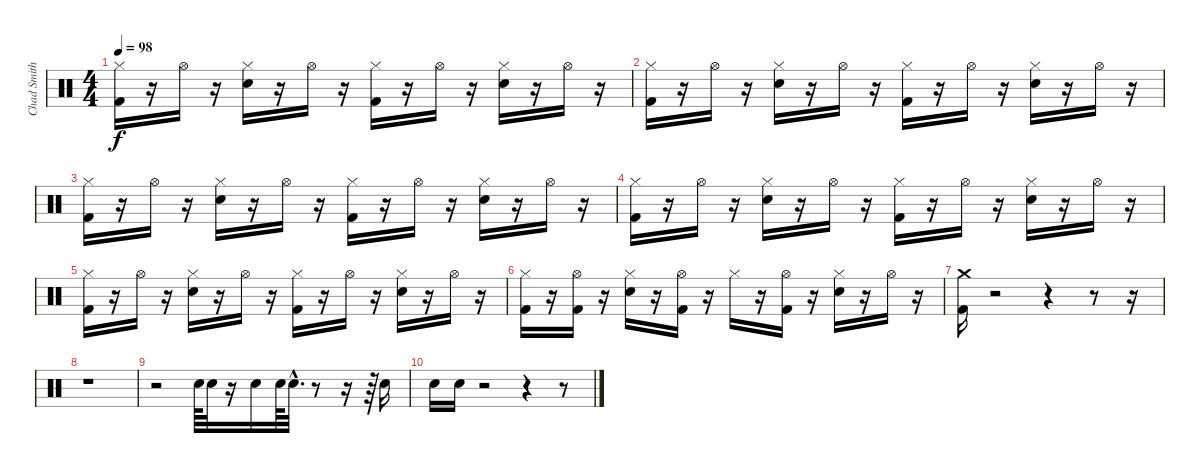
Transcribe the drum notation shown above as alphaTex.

\track ("Chad Smith" "Chad Smith") {instrument percussion}
\staff {score}
\articulation defaults
\ts (4 4)
\tempo 98
\clef neutral
\ks c
("Hi-Hat (closed)" "Kick (hit) 2").16{dy f} r.16 "Hi-Hat (open)".16 r.16 ("Hi-Hat (closed)" "Electric Snare (hit)").16 r.16 "Hi-Hat (open)".16 r.16 ("Kick (hit) 2" "Hi-Hat (closed)").16 r.16 "Hi-Hat (open)".16 r.16 ("Electric Snare (hit)" "Hi-Hat (closed)").16 r.16 "Hi-Hat (open)".16 r.16 |
("Hi-Hat (closed)" "Kick (hit) 2").16 r.16 "Hi-Hat (open)".16 r.16 ("Hi-Hat (closed)" "Electric Snare (hit)").16 r.16 "Hi-Hat (open)".16 r.16 ("Kick (hit) 2" "Hi-Hat (closed)").16 r.16 "Hi-Hat (open)".16 r.16 ("Electric Snare (hit)" "Hi-Hat (closed)").16 r.16 "Hi-Hat (open)".16 r.16 |
("Hi-Hat (closed)" "Kick (hit) 2").16 r.16 "Hi-Hat (open)".16 r.16 ("Hi-Hat (closed)" "Electric Snare (hit)").16 r.16 "Hi-Hat (open)".16 r.16 ("Kick (hit) 2" "Hi-Hat (closed)").16 r.16 "Hi-Hat (open)".16 r.16 ("Electric Snare (hit)" "Hi-Hat (closed)").16 r.16 "Hi-Hat (open)".16 r.16 |
("Hi-Hat (closed)" "Kick (hit) 2").16 r.16 "Hi-Hat (open)".16 r.16 ("Hi-Hat (closed)" "Electric Snare (hit)").16 r.16 "Hi-Hat (open)".16 r.16 ("Kick (hit) 2" "Hi-Hat (closed)").16 r.16 "Hi-Hat (open)".16 r.16 ("Electric Snare (hit)" "Hi-Hat (closed)").16 r.16 "Hi-Hat (open)".16 r.16 |
("Hi-Hat (closed)" "Kick (hit) 2").16 r.16 "Hi-Hat (open)".16 r.16 ("Hi-Hat (closed)" "Electric Snare (hit)").16 r.16 "Hi-Hat (open)".16 r.16 ("Kick (hit) 2" "Hi-Hat (closed)").16 r.16 "Hi-Hat (open)".16 r.16 ("Electric Snare (hit)" "Hi-Hat (closed)").16 r.16 "Hi-Hat (open)".16 r.16 |
("Hi-Hat (closed)" "Kick (hit) 2").16 r.16 ("Kick (hit) 2" "Hi-Hat (open)").16 r.16 ("Hi-Hat (closed)" "Electric Snare (hit)").16 r.16 ("Kick (hit) 2" "Hi-Hat (open)").16 r.16 "Hi-Hat (closed)".16 r.16 ("Kick (hit) 2" "Hi-Hat (open)").16 r.16 ("Electric Snare (hit)" "Hi-Hat (closed)").16 r.16 "Hi-Hat (open)".16 r.16 |
("Crash medium (hit)" "Kick (hit) 2").16 r.2 r.4 r.8 r.16 |
r.1 |
r.2 "Electric Snare (hit)".64 "Electric Snare (hit)".32 r.16 "Electric Snare (hit)".16 "Electric Snare (hit)".64 "Electric Snare (hit)"{hac}.32{d} r.8 r.16 r.64 "Electric Snare (hit)".16 |
"Electric Snare (hit)".16 "Electric Snare (hit)".16 r.2 r.4 r.8
